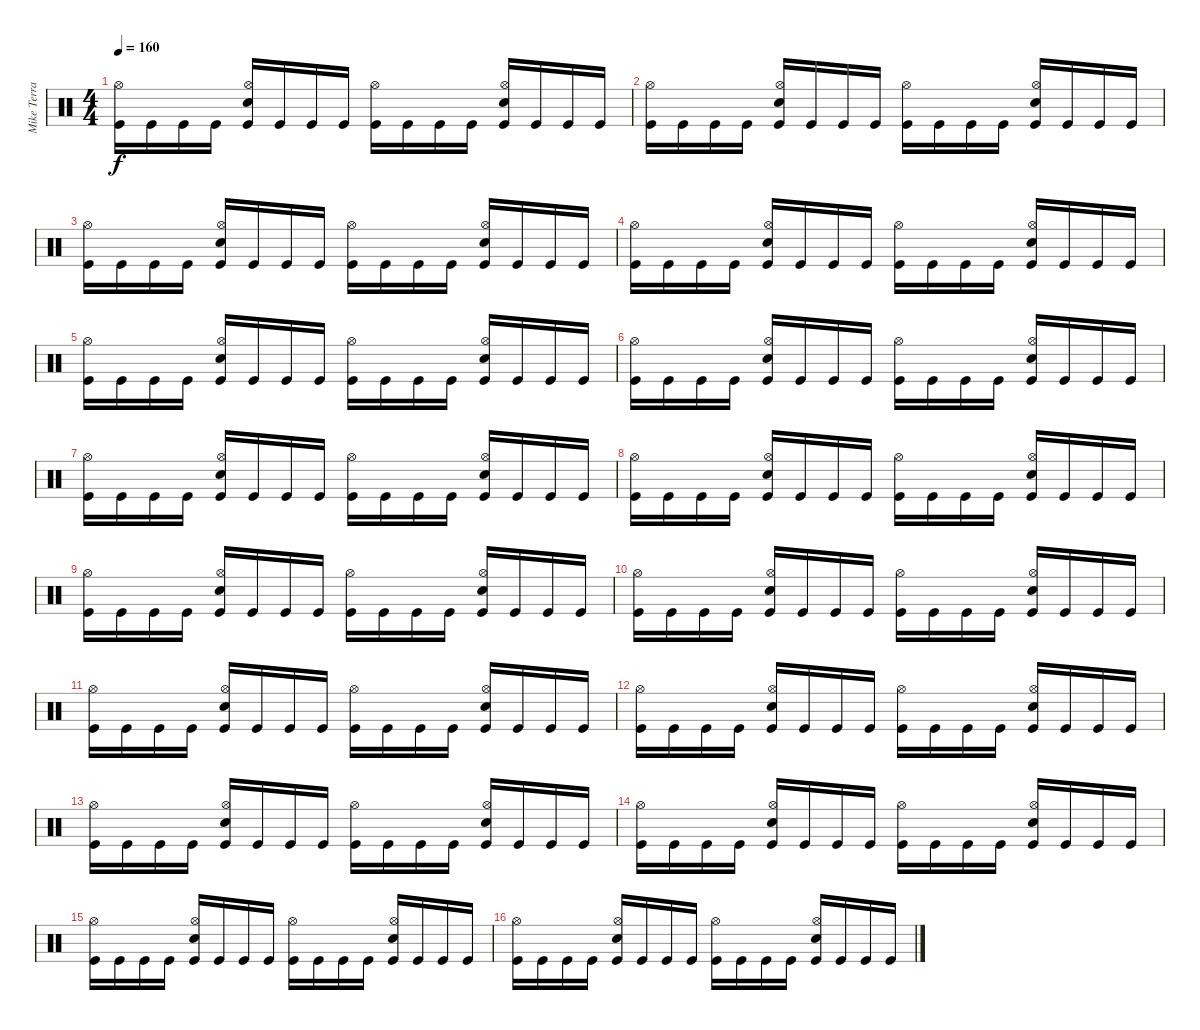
\track ("Mike Terrana - Drums" "Mike Terra") {instrument percussion}
\staff {score}
\articulation defaults
\ts (4 4)
\tempo 160
\clef neutral
\ks c
("Kick (hit)" "Hi-Hat (open)").16{dy f} "Kick (hit)".16 "Kick (hit)".16 "Kick (hit)".16 ("Kick (hit)" "Electric Snare (hit)" "Hi-Hat (open)").16 "Kick (hit)".16 "Kick (hit)".16 "Kick (hit)".16 ("Kick (hit)" "Hi-Hat (open)").16 "Kick (hit)".16 "Kick (hit)".16 "Kick (hit)".16 ("Kick (hit)" "Electric Snare (hit)" "Hi-Hat (open)").16 "Kick (hit)".16 "Kick (hit)".16 "Kick (hit)".16 |
("Kick (hit)" "Hi-Hat (open)").16 "Kick (hit)".16 "Kick (hit)".16 "Kick (hit)".16 ("Kick (hit)" "Electric Snare (hit)" "Hi-Hat (open)").16 "Kick (hit)".16 "Kick (hit)".16 "Kick (hit)".16 ("Kick (hit)" "Hi-Hat (open)").16 "Kick (hit)".16 "Kick (hit)".16 "Kick (hit)".16 ("Kick (hit)" "Electric Snare (hit)" "Hi-Hat (open)").16 "Kick (hit)".16 "Kick (hit)".16 "Kick (hit)".16 |
("Kick (hit)" "Hi-Hat (open)").16 "Kick (hit)".16 "Kick (hit)".16 "Kick (hit)".16 ("Kick (hit)" "Electric Snare (hit)" "Hi-Hat (open)").16 "Kick (hit)".16 "Kick (hit)".16 "Kick (hit)".16 ("Kick (hit)" "Hi-Hat (open)").16 "Kick (hit)".16 "Kick (hit)".16 "Kick (hit)".16 ("Kick (hit)" "Electric Snare (hit)" "Hi-Hat (open)").16 "Kick (hit)".16 "Kick (hit)".16 "Kick (hit)".16 |
("Kick (hit)" "Hi-Hat (open)").16 "Kick (hit)".16 "Kick (hit)".16 "Kick (hit)".16 ("Kick (hit)" "Electric Snare (hit)" "Hi-Hat (open)").16 "Kick (hit)".16 "Kick (hit)".16 "Kick (hit)".16 ("Kick (hit)" "Hi-Hat (open)").16 "Kick (hit)".16 "Kick (hit)".16 "Kick (hit)".16 ("Kick (hit)" "Electric Snare (hit)" "Hi-Hat (open)").16 "Kick (hit)".16 "Kick (hit)".16 "Kick (hit)".16 |
("Kick (hit)" "Hi-Hat (open)").16 "Kick (hit)".16 "Kick (hit)".16 "Kick (hit)".16 ("Kick (hit)" "Electric Snare (hit)" "Hi-Hat (open)").16 "Kick (hit)".16 "Kick (hit)".16 "Kick (hit)".16 ("Kick (hit)" "Hi-Hat (open)").16 "Kick (hit)".16 "Kick (hit)".16 "Kick (hit)".16 ("Kick (hit)" "Electric Snare (hit)" "Hi-Hat (open)").16 "Kick (hit)".16 "Kick (hit)".16 "Kick (hit)".16 |
("Kick (hit)" "Hi-Hat (open)").16 "Kick (hit)".16 "Kick (hit)".16 "Kick (hit)".16 ("Kick (hit)" "Electric Snare (hit)" "Hi-Hat (open)").16 "Kick (hit)".16 "Kick (hit)".16 "Kick (hit)".16 ("Kick (hit)" "Hi-Hat (open)").16 "Kick (hit)".16 "Kick (hit)".16 "Kick (hit)".16 ("Kick (hit)" "Electric Snare (hit)" "Hi-Hat (open)").16 "Kick (hit)".16 "Kick (hit)".16 "Kick (hit)".16 |
("Kick (hit)" "Hi-Hat (open)").16 "Kick (hit)".16 "Kick (hit)".16 "Kick (hit)".16 ("Kick (hit)" "Electric Snare (hit)" "Hi-Hat (open)").16 "Kick (hit)".16 "Kick (hit)".16 "Kick (hit)".16 ("Kick (hit)" "Hi-Hat (open)").16 "Kick (hit)".16 "Kick (hit)".16 "Kick (hit)".16 ("Kick (hit)" "Electric Snare (hit)" "Hi-Hat (open)").16 "Kick (hit)".16 "Kick (hit)".16 "Kick (hit)".16 |
("Kick (hit)" "Hi-Hat (open)").16 "Kick (hit)".16 "Kick (hit)".16 "Kick (hit)".16 ("Kick (hit)" "Electric Snare (hit)" "Hi-Hat (open)").16 "Kick (hit)".16 "Kick (hit)".16 "Kick (hit)".16 ("Kick (hit)" "Hi-Hat (open)").16 "Kick (hit)".16 "Kick (hit)".16 "Kick (hit)".16 ("Kick (hit)" "Electric Snare (hit)" "Hi-Hat (open)").16 "Kick (hit)".16 "Kick (hit)".16 "Kick (hit)".16 |
("Kick (hit)" "Hi-Hat (open)").16 "Kick (hit)".16 "Kick (hit)".16 "Kick (hit)".16 ("Kick (hit)" "Electric Snare (hit)" "Hi-Hat (open)").16 "Kick (hit)".16 "Kick (hit)".16 "Kick (hit)".16 ("Kick (hit)" "Hi-Hat (open)").16 "Kick (hit)".16 "Kick (hit)".16 "Kick (hit)".16 ("Kick (hit)" "Electric Snare (hit)" "Hi-Hat (open)").16 "Kick (hit)".16 "Kick (hit)".16 "Kick (hit)".16 |
("Kick (hit)" "Hi-Hat (open)").16 "Kick (hit)".16 "Kick (hit)".16 "Kick (hit)".16 ("Kick (hit)" "Electric Snare (hit)" "Hi-Hat (open)").16 "Kick (hit)".16 "Kick (hit)".16 "Kick (hit)".16 ("Kick (hit)" "Hi-Hat (open)").16 "Kick (hit)".16 "Kick (hit)".16 "Kick (hit)".16 ("Kick (hit)" "Electric Snare (hit)" "Hi-Hat (open)").16 "Kick (hit)".16 "Kick (hit)".16 "Kick (hit)".16 |
("Kick (hit)" "Hi-Hat (open)").16 "Kick (hit)".16 "Kick (hit)".16 "Kick (hit)".16 ("Kick (hit)" "Electric Snare (hit)" "Hi-Hat (open)").16 "Kick (hit)".16 "Kick (hit)".16 "Kick (hit)".16 ("Kick (hit)" "Hi-Hat (open)").16 "Kick (hit)".16 "Kick (hit)".16 "Kick (hit)".16 ("Kick (hit)" "Electric Snare (hit)" "Hi-Hat (open)").16 "Kick (hit)".16 "Kick (hit)".16 "Kick (hit)".16 |
("Kick (hit)" "Hi-Hat (open)").16 "Kick (hit)".16 "Kick (hit)".16 "Kick (hit)".16 ("Kick (hit)" "Electric Snare (hit)" "Hi-Hat (open)").16 "Kick (hit)".16 "Kick (hit)".16 "Kick (hit)".16 ("Kick (hit)" "Hi-Hat (open)").16 "Kick (hit)".16 "Kick (hit)".16 "Kick (hit)".16 ("Kick (hit)" "Electric Snare (hit)" "Hi-Hat (open)").16 "Kick (hit)".16 "Kick (hit)".16 "Kick (hit)".16 |
("Kick (hit)" "Hi-Hat (open)").16 "Kick (hit)".16 "Kick (hit)".16 "Kick (hit)".16 ("Kick (hit)" "Electric Snare (hit)" "Hi-Hat (open)").16 "Kick (hit)".16 "Kick (hit)".16 "Kick (hit)".16 ("Kick (hit)" "Hi-Hat (open)").16 "Kick (hit)".16 "Kick (hit)".16 "Kick (hit)".16 ("Kick (hit)" "Electric Snare (hit)" "Hi-Hat (open)").16 "Kick (hit)".16 "Kick (hit)".16 "Kick (hit)".16 |
("Kick (hit)" "Hi-Hat (open)").16 "Kick (hit)".16 "Kick (hit)".16 "Kick (hit)".16 ("Kick (hit)" "Electric Snare (hit)" "Hi-Hat (open)").16 "Kick (hit)".16 "Kick (hit)".16 "Kick (hit)".16 ("Kick (hit)" "Hi-Hat (open)").16 "Kick (hit)".16 "Kick (hit)".16 "Kick (hit)".16 ("Kick (hit)" "Electric Snare (hit)" "Hi-Hat (open)").16 "Kick (hit)".16 "Kick (hit)".16 "Kick (hit)".16 |
("Kick (hit)" "Hi-Hat (open)").16 "Kick (hit)".16 "Kick (hit)".16 "Kick (hit)".16 ("Kick (hit)" "Electric Snare (hit)" "Hi-Hat (open)").16 "Kick (hit)".16 "Kick (hit)".16 "Kick (hit)".16 ("Kick (hit)" "Hi-Hat (open)").16 "Kick (hit)".16 "Kick (hit)".16 "Kick (hit)".16 ("Kick (hit)" "Electric Snare (hit)" "Hi-Hat (open)").16 "Kick (hit)".16 "Kick (hit)".16 "Kick (hit)".16 |
("Kick (hit)" "Hi-Hat (open)").16 "Kick (hit)".16 "Kick (hit)".16 "Kick (hit)".16 ("Kick (hit)" "Electric Snare (hit)" "Hi-Hat (open)").16 "Kick (hit)".16 "Kick (hit)".16 "Kick (hit)".16 ("Kick (hit)" "Hi-Hat (open)").16 "Kick (hit)".16 "Kick (hit)".16 "Kick (hit)".16 ("Kick (hit)" "Electric Snare (hit)" "Hi-Hat (open)").16 "Kick (hit)".16 "Kick (hit)".16 "Kick (hit)".16
